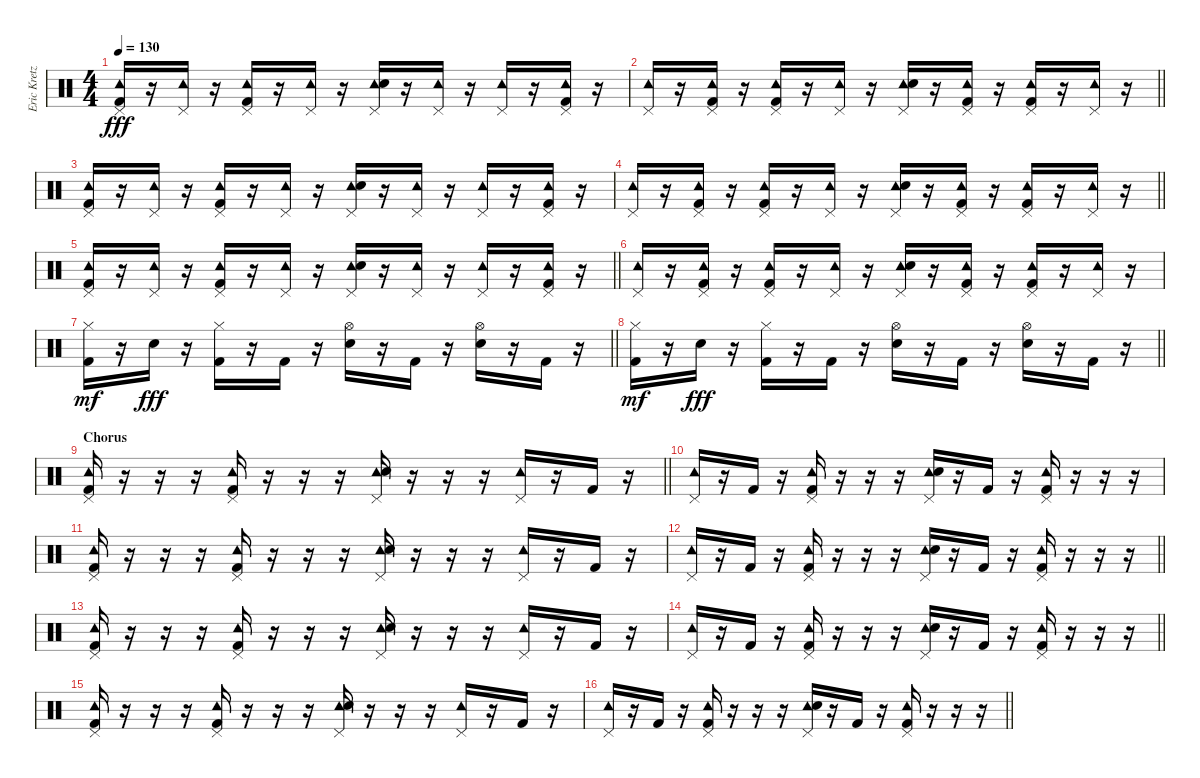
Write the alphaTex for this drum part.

\track ("Eric Kretz (Drums)" "Eric Kretz") {instrument percussion}
\staff {score}
\articulation defaults
\ts (4 4)
\tempo 130
\clef neutral
\ks c
("Pedal Hi-Hat (hit)" "Tambourine (hit)" "Kick (hit) 2").16{dy fff} r.16 ("Pedal Hi-Hat (hit)" "Tambourine (hit)").16 r.16 ("Pedal Hi-Hat (hit)" "Tambourine (hit)" "Kick (hit) 2").16 r.16 ("Pedal Hi-Hat (hit)" "Tambourine (hit)").16 r.16 ("Pedal Hi-Hat (hit)" "Tambourine (hit)" "Electric Snare (hit)").16 r.16 ("Pedal Hi-Hat (hit)" "Tambourine (hit)").16 r.16 ("Pedal Hi-Hat (hit)" "Tambourine (hit)").16 r.16 ("Pedal Hi-Hat (hit)" "Tambourine (hit)" "Kick (hit) 2").16 r.16 |
\barLineRight lightlight
("Pedal Hi-Hat (hit)" "Tambourine (hit)").16 r.16 ("Pedal Hi-Hat (hit)" "Tambourine (hit)" "Kick (hit) 2").16 r.16 ("Pedal Hi-Hat (hit)" "Tambourine (hit)" "Kick (hit) 2").16 r.16 ("Pedal Hi-Hat (hit)" "Tambourine (hit)").16 r.16 ("Pedal Hi-Hat (hit)" "Tambourine (hit)" "Electric Snare (hit)").16 r.16 ("Pedal Hi-Hat (hit)" "Tambourine (hit)" "Kick (hit) 2").16 r.16 ("Pedal Hi-Hat (hit)" "Tambourine (hit)" "Kick (hit) 2").16 r.16 ("Pedal Hi-Hat (hit)" "Tambourine (hit)").16 r.16 |
("Pedal Hi-Hat (hit)" "Tambourine (hit)" "Kick (hit) 2").16 r.16 ("Pedal Hi-Hat (hit)" "Tambourine (hit)").16 r.16 ("Pedal Hi-Hat (hit)" "Tambourine (hit)" "Kick (hit) 2").16 r.16 ("Pedal Hi-Hat (hit)" "Tambourine (hit)").16 r.16 ("Pedal Hi-Hat (hit)" "Tambourine (hit)" "Electric Snare (hit)").16 r.16 ("Pedal Hi-Hat (hit)" "Tambourine (hit)").16 r.16 ("Pedal Hi-Hat (hit)" "Tambourine (hit)").16 r.16 ("Pedal Hi-Hat (hit)" "Tambourine (hit)" "Kick (hit) 2").16 r.16 |
\barLineRight lightlight
("Pedal Hi-Hat (hit)" "Tambourine (hit)").16 r.16 ("Pedal Hi-Hat (hit)" "Tambourine (hit)" "Kick (hit) 2").16 r.16 ("Pedal Hi-Hat (hit)" "Tambourine (hit)" "Kick (hit) 2").16 r.16 ("Pedal Hi-Hat (hit)" "Tambourine (hit)").16 r.16 ("Pedal Hi-Hat (hit)" "Tambourine (hit)" "Electric Snare (hit)").16 r.16 ("Pedal Hi-Hat (hit)" "Tambourine (hit)" "Kick (hit) 2").16 r.16 ("Pedal Hi-Hat (hit)" "Tambourine (hit)" "Kick (hit) 2").16 r.16 ("Pedal Hi-Hat (hit)" "Tambourine (hit)").16 r.16 |
\section ("" "")
\barLineRight lightlight
("Pedal Hi-Hat (hit)" "Tambourine (hit)" "Kick (hit) 2").16 r.16 ("Pedal Hi-Hat (hit)" "Tambourine (hit)").16 r.16 ("Pedal Hi-Hat (hit)" "Tambourine (hit)" "Kick (hit) 2").16 r.16 ("Pedal Hi-Hat (hit)" "Tambourine (hit)").16 r.16 ("Pedal Hi-Hat (hit)" "Tambourine (hit)" "Electric Snare (hit)").16 r.16 ("Pedal Hi-Hat (hit)" "Tambourine (hit)").16 r.16 ("Pedal Hi-Hat (hit)" "Tambourine (hit)").16 r.16 ("Pedal Hi-Hat (hit)" "Tambourine (hit)" "Kick (hit) 2").16 r.16 |
("Pedal Hi-Hat (hit)" "Tambourine (hit)").16 r.16 ("Pedal Hi-Hat (hit)" "Tambourine (hit)" "Kick (hit) 2").16 r.16 ("Pedal Hi-Hat (hit)" "Tambourine (hit)" "Kick (hit) 2").16 r.16 ("Pedal Hi-Hat (hit)" "Tambourine (hit)").16 r.16 ("Pedal Hi-Hat (hit)" "Tambourine (hit)" "Electric Snare (hit)").16 r.16 ("Pedal Hi-Hat (hit)" "Tambourine (hit)" "Kick (hit) 2").16 r.16 ("Pedal Hi-Hat (hit)" "Tambourine (hit)" "Kick (hit) 2").16 r.16 ("Pedal Hi-Hat (hit)" "Tambourine (hit)").16 r.16 |
\barLineRight lightlight
("Hi-Hat (closed)" "Kick (hit) 2").16{dy mf} r.16 "Electric Snare (hit)".16{dy fff} r.16 ("Hi-Hat (closed)" "Kick (hit) 2").16 r.16 "Kick (hit) 2".16 r.16 ("Hi-Hat (open)" "Electric Snare (hit)").16 r.16 "Kick (hit) 2".16 r.16 ("Hi-Hat (open)" "Electric Snare (hit)").16 r.16 "Kick (hit) 2".16 r.16 |
\barLineRight lightlight
("Hi-Hat (closed)" "Kick (hit) 2").16{dy mf} r.16 "Electric Snare (hit)".16{dy fff} r.16 ("Hi-Hat (closed)" "Kick (hit) 2").16 r.16 "Kick (hit) 2".16 r.16 ("Hi-Hat (open)" "Electric Snare (hit)").16 r.16 "Kick (hit) 2".16 r.16 ("Hi-Hat (open)" "Electric Snare (hit)").16 r.16 "Kick (hit) 2".16 r.16 |
\section ("" "Chorus")
\barLineRight lightlight
("Pedal Hi-Hat (hit)" "Tambourine (hit)" "Kick (hit) 2").16 r.16 r.16 r.16 ("Pedal Hi-Hat (hit)" "Tambourine (hit)" "Kick (hit) 2").16 r.16 r.16 r.16 ("Pedal Hi-Hat (hit)" "Tambourine (hit)" "Electric Snare (hit)").16 r.16 r.16 r.16 ("Pedal Hi-Hat (hit)" "Tambourine (hit)").16 r.16 "Kick (hit) 2".16 r.16 |
("Pedal Hi-Hat (hit)" "Tambourine (hit)").16 r.16 "Kick (hit) 2".16 r.16 ("Pedal Hi-Hat (hit)" "Tambourine (hit)" "Kick (hit) 2").16 r.16 r.16 r.16 ("Pedal Hi-Hat (hit)" "Tambourine (hit)" "Electric Snare (hit)").16 r.16 "Kick (hit) 2".16 r.16 ("Pedal Hi-Hat (hit)" "Tambourine (hit)" "Kick (hit) 2").16 r.16 r.16 r.16 |
("Pedal Hi-Hat (hit)" "Tambourine (hit)" "Kick (hit) 2").16 r.16 r.16 r.16 ("Pedal Hi-Hat (hit)" "Tambourine (hit)" "Kick (hit) 2").16 r.16 r.16 r.16 ("Pedal Hi-Hat (hit)" "Tambourine (hit)" "Electric Snare (hit)").16 r.16 r.16 r.16 ("Pedal Hi-Hat (hit)" "Tambourine (hit)").16 r.16 "Kick (hit) 2".16 r.16 |
\barLineRight lightlight
("Pedal Hi-Hat (hit)" "Tambourine (hit)").16 r.16 "Kick (hit) 2".16 r.16 ("Pedal Hi-Hat (hit)" "Tambourine (hit)" "Kick (hit) 2").16 r.16 r.16 r.16 ("Pedal Hi-Hat (hit)" "Tambourine (hit)" "Electric Snare (hit)").16 r.16 "Kick (hit) 2".16 r.16 ("Pedal Hi-Hat (hit)" "Tambourine (hit)" "Kick (hit) 2").16 r.16 r.16 r.16 |
("Pedal Hi-Hat (hit)" "Tambourine (hit)" "Kick (hit) 2").16 r.16 r.16 r.16 ("Pedal Hi-Hat (hit)" "Tambourine (hit)" "Kick (hit) 2").16 r.16 r.16 r.16 ("Pedal Hi-Hat (hit)" "Tambourine (hit)" "Electric Snare (hit)").16 r.16 r.16 r.16 ("Pedal Hi-Hat (hit)" "Tambourine (hit)").16 r.16 "Kick (hit) 2".16 r.16 |
\barLineRight lightlight
("Pedal Hi-Hat (hit)" "Tambourine (hit)").16 r.16 "Kick (hit) 2".16 r.16 ("Pedal Hi-Hat (hit)" "Tambourine (hit)" "Kick (hit) 2").16 r.16 r.16 r.16 ("Pedal Hi-Hat (hit)" "Tambourine (hit)" "Electric Snare (hit)").16 r.16 "Kick (hit) 2".16 r.16 ("Pedal Hi-Hat (hit)" "Tambourine (hit)" "Kick (hit) 2").16 r.16 r.16 r.16 |
("Pedal Hi-Hat (hit)" "Tambourine (hit)" "Kick (hit) 2").16 r.16 r.16 r.16 ("Pedal Hi-Hat (hit)" "Tambourine (hit)" "Kick (hit) 2").16 r.16 r.16 r.16 ("Pedal Hi-Hat (hit)" "Tambourine (hit)" "Electric Snare (hit)").16 r.16 r.16 r.16 ("Pedal Hi-Hat (hit)" "Tambourine (hit)").16 r.16 "Kick (hit) 2".16 r.16 |
\barLineRight lightlight
("Pedal Hi-Hat (hit)" "Tambourine (hit)").16 r.16 "Kick (hit) 2".16 r.16 ("Pedal Hi-Hat (hit)" "Tambourine (hit)" "Kick (hit) 2").16 r.16 r.16 r.16 ("Pedal Hi-Hat (hit)" "Tambourine (hit)" "Electric Snare (hit)").16 r.16 "Kick (hit) 2".16 r.16 ("Pedal Hi-Hat (hit)" "Tambourine (hit)" "Kick (hit) 2").16 r.16 r.16 r.16
